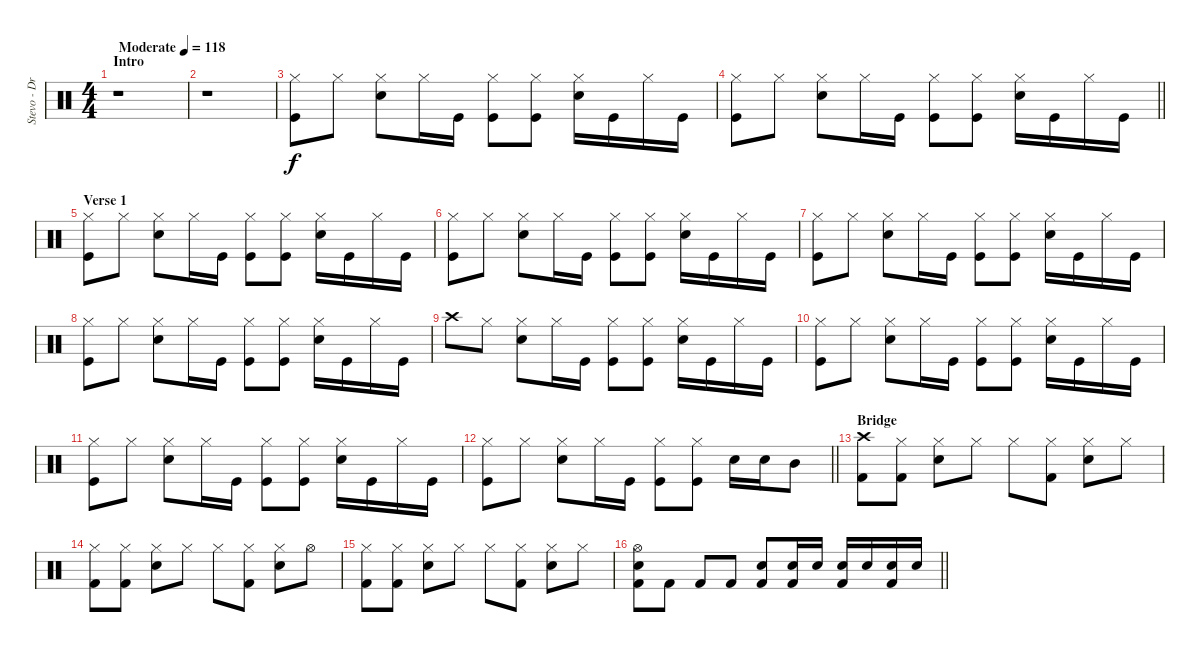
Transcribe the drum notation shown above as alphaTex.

\track ("Stevo - Drums" "Stevo - Dr") {instrument percussion}
\staff {score}
\articulation defaults
\ts (4 4)
\section ("" "Intro")
\tempo (118 "Moderate")
\clef neutral
\ks c
r.1{dy f} |
r.1 |
("Hi-Hat (closed)" "Kick (hit)").8 "Hi-Hat (closed)".8 ("Hi-Hat (closed)" "Snare (hit) 2").8 "Hi-Hat (closed)".16 "Kick (hit)".16 ("Hi-Hat (closed)" "Kick (hit)").8 ("Hi-Hat (closed)" "Kick (hit)").8 ("Hi-Hat (closed)" "Electric Snare (hit)").16 "Kick (hit)".16 "Hi-Hat (closed)".16 "Kick (hit)".16 |
\barLineRight lightlight
("Hi-Hat (closed)" "Kick (hit)").8 "Hi-Hat (closed)".8 ("Hi-Hat (closed)" "Snare (hit) 2").8 "Hi-Hat (closed)".16 "Kick (hit)".16 ("Hi-Hat (closed)" "Kick (hit)").8 ("Hi-Hat (closed)" "Kick (hit)").8 ("Hi-Hat (closed)" "Electric Snare (hit)").16 "Kick (hit)".16 "Hi-Hat (closed)".16 "Kick (hit)".16 |
\section ("" "Verse 1")
("Hi-Hat (closed)" "Kick (hit)").8 "Hi-Hat (closed)".8 ("Hi-Hat (closed)" "Snare (hit) 2").8 "Hi-Hat (closed)".16 "Kick (hit)".16 ("Hi-Hat (closed)" "Kick (hit)").8 ("Hi-Hat (closed)" "Kick (hit)").8 ("Hi-Hat (closed)" "Electric Snare (hit)").16 "Kick (hit)".16 "Hi-Hat (closed)".16 "Kick (hit)".16 |
("Hi-Hat (closed)" "Kick (hit)").8 "Hi-Hat (closed)".8 ("Hi-Hat (closed)" "Snare (hit) 2").8 "Hi-Hat (closed)".16 "Kick (hit)".16 ("Hi-Hat (closed)" "Kick (hit)").8 ("Hi-Hat (closed)" "Kick (hit)").8 ("Hi-Hat (closed)" "Electric Snare (hit)").16 "Kick (hit)".16 "Hi-Hat (closed)".16 "Kick (hit)".16 |
("Hi-Hat (closed)" "Kick (hit)").8 "Hi-Hat (closed)".8 ("Hi-Hat (closed)" "Snare (hit) 2").8 "Hi-Hat (closed)".16 "Kick (hit)".16 ("Hi-Hat (closed)" "Kick (hit)").8 ("Hi-Hat (closed)" "Kick (hit)").8 ("Hi-Hat (closed)" "Electric Snare (hit)").16 "Kick (hit)".16 "Hi-Hat (closed)".16 "Kick (hit)".16 |
("Hi-Hat (closed)" "Kick (hit)").8 "Hi-Hat (closed)".8 ("Hi-Hat (closed)" "Snare (hit) 2").8 "Hi-Hat (closed)".16 "Kick (hit)".16 ("Hi-Hat (closed)" "Kick (hit)").8 ("Hi-Hat (closed)" "Kick (hit)").8 ("Hi-Hat (closed)" "Electric Snare (hit)").16 "Kick (hit)".16 "Hi-Hat (closed)".16 "Kick (hit)".16 |
"Crash high (hit)".8 "Hi-Hat (closed)".8 ("Hi-Hat (closed)" "Snare (hit) 2").8 "Hi-Hat (closed)".16 "Kick (hit)".16 ("Hi-Hat (closed)" "Kick (hit)").8 ("Hi-Hat (closed)" "Kick (hit)").8 ("Hi-Hat (closed)" "Electric Snare (hit)").16 "Kick (hit)".16 "Hi-Hat (closed)".16 "Kick (hit)".16 |
("Hi-Hat (closed)" "Kick (hit)").8 "Hi-Hat (closed)".8 ("Hi-Hat (closed)" "Snare (hit) 2").8 "Hi-Hat (closed)".16 "Kick (hit)".16 ("Hi-Hat (closed)" "Kick (hit)").8 ("Hi-Hat (closed)" "Kick (hit)").8 ("Hi-Hat (closed)" "Electric Snare (hit)").16 "Kick (hit)".16 "Hi-Hat (closed)".16 "Kick (hit)".16 |
("Hi-Hat (closed)" "Kick (hit)").8 "Hi-Hat (closed)".8 ("Hi-Hat (closed)" "Snare (hit) 2").8 "Hi-Hat (closed)".16 "Kick (hit)".16 ("Hi-Hat (closed)" "Kick (hit)").8 ("Hi-Hat (closed)" "Kick (hit)").8 ("Hi-Hat (closed)" "Electric Snare (hit)").16 "Kick (hit)".16 "Hi-Hat (closed)".16 "Kick (hit)".16 |
\barLineRight lightlight
("Hi-Hat (closed)" "Kick (hit)").8 "Hi-Hat (closed)".8 ("Hi-Hat (closed)" "Snare (hit) 2").8 "Hi-Hat (closed)".16 "Kick (hit)".16 ("Hi-Hat (closed)" "Kick (hit)").8 ("Hi-Hat (closed)" "Kick (hit)").8 "Snare (hit) 2".16 "Snare (hit) 2".16 "Mid Tom (hit)".8 |
\section ("" "Bridge")
("Crash high (hit)" "Kick (hit) 2").8 ("Hi-Hat (closed)" "Kick (hit) 2").8 ("Hi-Hat (closed)" "Snare (hit) 2").8 "Hi-Hat (closed)".8 "Hi-Hat (closed)".8 ("Hi-Hat (closed)" "Kick (hit) 2").8 ("Hi-Hat (closed)" "Snare (hit) 2").8 "Hi-Hat (closed)".8 |
("Hi-Hat (closed)" "Kick (hit) 2").8 ("Hi-Hat (closed)" "Kick (hit) 2").8 ("Hi-Hat (closed)" "Snare (hit) 2").8 "Hi-Hat (closed)".8 "Hi-Hat (closed)".8 ("Hi-Hat (closed)" "Kick (hit) 2").8 ("Hi-Hat (closed)" "Snare (hit) 2").8 "Hi-Hat (open)".8 |
("Hi-Hat (closed)" "Kick (hit) 2").8 ("Hi-Hat (closed)" "Kick (hit) 2").8 ("Hi-Hat (closed)" "Snare (hit) 2").8 "Hi-Hat (closed)".8 "Hi-Hat (closed)".8 ("Hi-Hat (closed)" "Kick (hit) 2").8 ("Hi-Hat (closed)" "Snare (hit) 2").8 "Hi-Hat (closed)".8 |
\barLineRight lightlight
("Hi-Hat (open)" "Snare (hit) 2" "Kick (hit) 2").8 "Kick (hit) 2".8 "Kick (hit) 2".8 "Kick (hit) 2".8 ("Snare (hit) 2" "Kick (hit) 2").8 ("Snare (hit) 2" "Kick (hit) 2").16 "Snare (hit) 2".16 ("Snare (hit) 2" "Kick (hit) 2").16 "Snare (hit) 2".16 ("Snare (hit) 2" "Kick (hit) 2").16 "Snare (hit) 2".16
